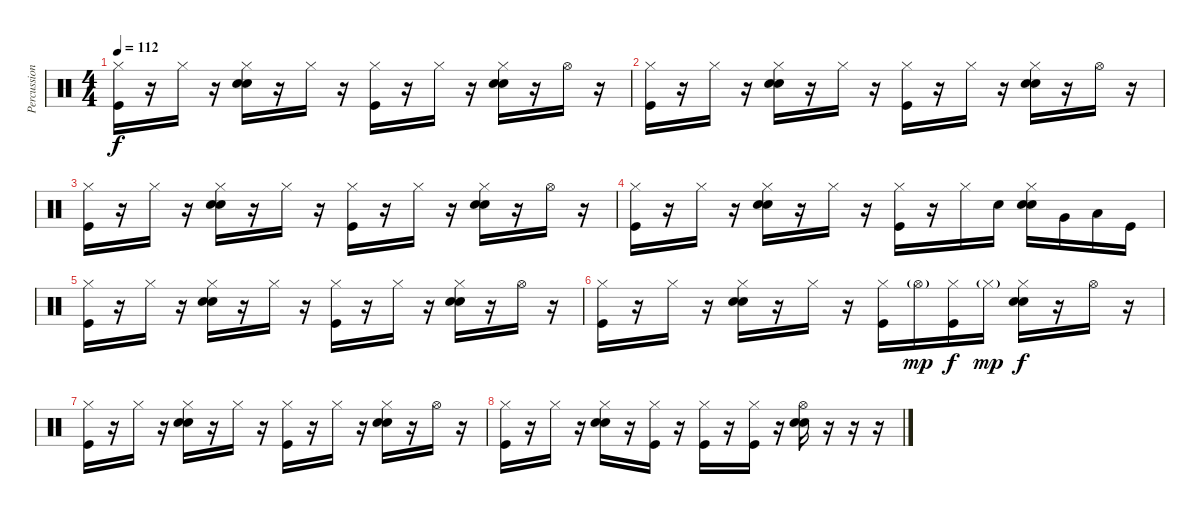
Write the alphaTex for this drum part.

\track ("Percussion" "Percussion") {instrument percussion}
\staff {score}
\articulation defaults
\ts (4 4)
\tempo 112
\clef neutral
\ks c
("Hi-Hat (closed)" "Kick (hit)").16{dy f} r.16 "Hi-Hat (closed)".16 r.16 ("Hi-Hat (closed)" "Hand Clap (hit)" "Snare (hit) 2").16 r.16 "Hi-Hat (closed)".16 r.16 ("Hi-Hat (closed)" "Kick (hit)").16 r.16 "Hi-Hat (closed)".16 r.16 ("Hi-Hat (closed)" "Hand Clap (hit)" "Snare (hit) 2").16 r.16 "Hi-Hat (open)".16 r.16 |
("Hi-Hat (closed)" "Kick (hit)").16 r.16 "Hi-Hat (closed)".16 r.16 ("Hi-Hat (closed)" "Hand Clap (hit)" "Snare (hit) 2").16 r.16 "Hi-Hat (closed)".16 r.16 ("Hi-Hat (closed)" "Kick (hit)").16 r.16 "Hi-Hat (closed)".16 r.16 ("Hi-Hat (closed)" "Hand Clap (hit)" "Snare (hit) 2").16 r.16 "Hi-Hat (open)".16 r.16 |
("Hi-Hat (closed)" "Kick (hit)").16 r.16 "Hi-Hat (closed)".16 r.16 ("Hi-Hat (closed)" "Hand Clap (hit)" "Snare (hit) 2").16 r.16 "Hi-Hat (closed)".16 r.16 ("Hi-Hat (closed)" "Kick (hit)").16 r.16 "Hi-Hat (closed)".16 r.16 ("Hi-Hat (closed)" "Hand Clap (hit)" "Snare (hit) 2").16 r.16 "Hi-Hat (open)".16 r.16 |
("Hi-Hat (closed)" "Kick (hit)").16 r.16 "Hi-Hat (closed)".16 r.16 ("Hi-Hat (closed)" "Hand Clap (hit)" "Snare (hit) 2").16 r.16 "Hi-Hat (closed)".16 r.16 ("Hi-Hat (closed)" "Kick (hit)").16 r.16 "Hi-Hat (closed)".16 "Snare (hit) 2".16 ("Hi-Hat (closed)" "Hand Clap (hit)" "Snare (hit) 2").16 "Very Low Tom (hit)".16 "Low Tom (hit)".16 "Kick (hit)".16 |
("Hi-Hat (closed)" "Kick (hit)").16 r.16 "Hi-Hat (closed)".16 r.16 ("Hi-Hat (closed)" "Hand Clap (hit)" "Snare (hit) 2").16 r.16 "Hi-Hat (closed)".16 r.16 ("Hi-Hat (closed)" "Kick (hit)").16 r.16 "Hi-Hat (closed)".16 r.16 ("Hi-Hat (closed)" "Hand Clap (hit)" "Snare (hit) 2").16 r.16 "Hi-Hat (open)".16 r.16 |
("Hi-Hat (closed)" "Kick (hit)").16 r.16 "Hi-Hat (closed)".16 r.16 ("Hi-Hat (closed)" "Hand Clap (hit)" "Snare (hit) 2").16 r.16 "Hi-Hat (closed)".16 r.16 ("Hi-Hat (closed)" "Kick (hit)").16 "Hi-Hat (open)"{g}.16{dy mp} ("Hi-Hat (closed)" "Kick (hit)").16{dy f} "Hi-Hat (closed)"{g}.16{dy mp} ("Hi-Hat (closed)" "Hand Clap (hit)" "Snare (hit) 2").16{dy f} r.16 "Hi-Hat (open)".16 r.16 |
("Hi-Hat (closed)" "Kick (hit)").16 r.16 "Hi-Hat (closed)".16 r.16 ("Hi-Hat (closed)" "Hand Clap (hit)" "Snare (hit) 2").16 r.16 "Hi-Hat (closed)".16 r.16 ("Hi-Hat (closed)" "Kick (hit)").16 r.16 "Hi-Hat (closed)".16 r.16 ("Hi-Hat (closed)" "Hand Clap (hit)" "Snare (hit) 2").16 r.16 "Hi-Hat (open)".16 r.16 |
("Hi-Hat (closed)" "Kick (hit)").16 r.16 "Hi-Hat (closed)".16 r.16 ("Hi-Hat (closed)" "Hand Clap (hit)" "Snare (hit) 2").16 r.16 ("Hi-Hat (closed)" "Kick (hit)").16 r.16 ("Hi-Hat (closed)" "Kick (hit)").16 r.16 ("Hi-Hat (closed)" "Kick (hit)").16 r.16 ("Hi-Hat (open)" "Hand Clap (hit)" "Snare (hit) 2").16 r.16 r.16 r.16
